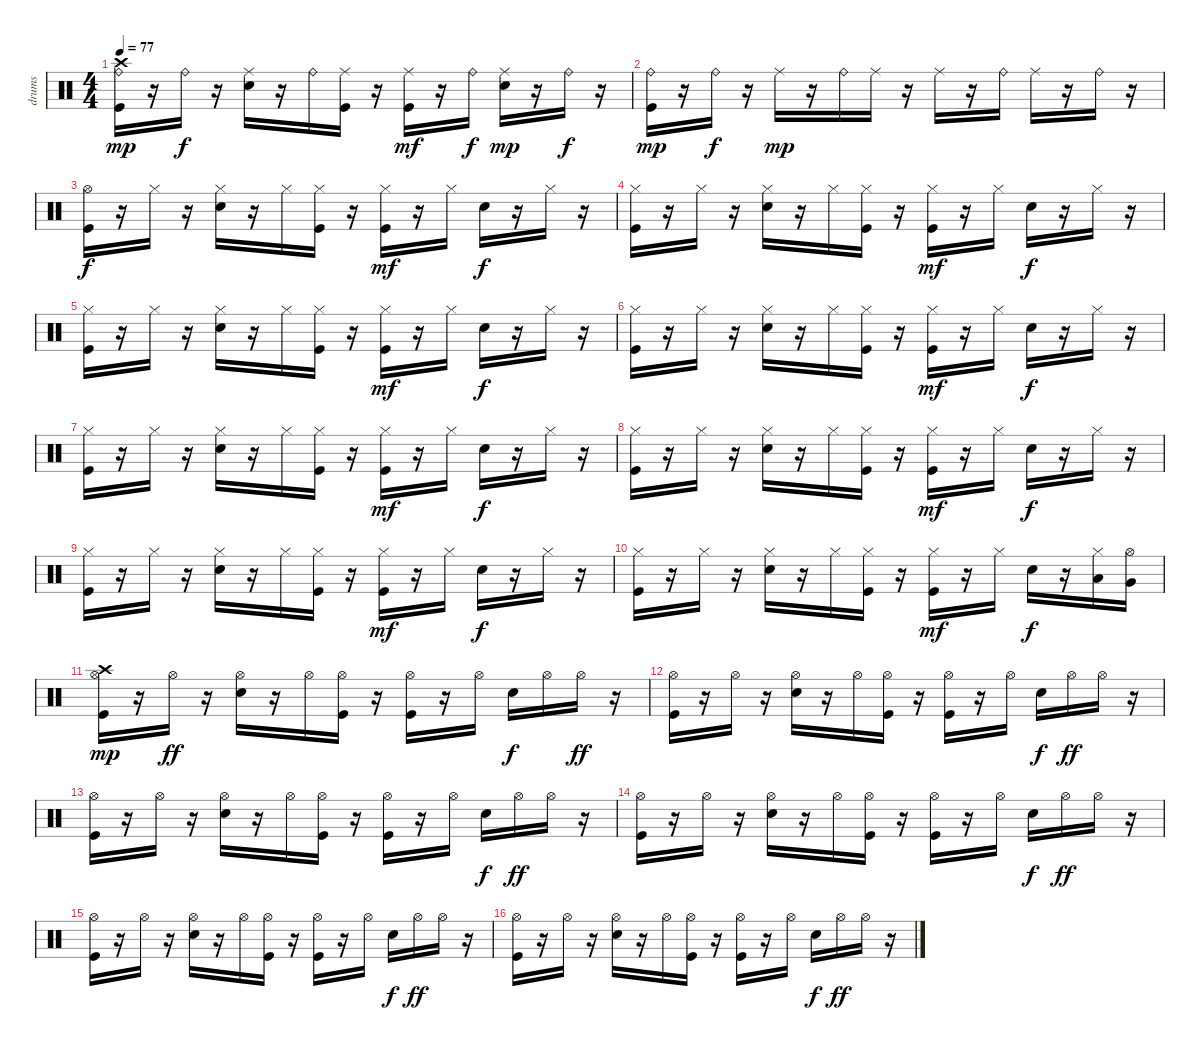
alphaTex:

\track ("drums" "drums") {instrument percussion}
\staff {score}
\articulation defaults
\ts (4 4)
\tempo 77
\clef neutral
\ks c
("Crash high (hit)" "Kick (hit)" "Ride (bell)").16{dy mp} r.16 "Ride (bell)".16{dy f} r.16 ("Snare (hit) 2" "Ride (middle)").16 r.16 "Ride (bell)".16 ("Kick (hit)" "Ride (middle)").16 r.16 ("Kick (hit)" "Ride (middle)").16{dy mf} r.16 "Ride (bell)".16{dy f} ("Snare (hit) 2" "Ride (middle)").16{dy mp} r.16 "Ride (bell)".16{dy f} r.16 |
("Kick (hit)" "Ride (bell)").16{dy mp} r.16 "Ride (bell)".16{dy f} r.16 "Ride (middle)".16{dy mp} r.16 "Ride (bell)".16 "Ride (middle)".16 r.16 "Ride (middle)".16 r.16 "Ride (bell)".16 "Ride (middle)".16 r.16 "Ride (bell)".16 r.16 |
("Hi-Hat (open)" "Kick (hit)").16{dy f} r.16 "Hi-Hat (closed)".16 r.16 ("Snare (hit) 2" "Hi-Hat (closed)").16 r.16 "Hi-Hat (closed)".16 ("Kick (hit)" "Hi-Hat (closed)").16 r.16 ("Kick (hit)" "Hi-Hat (closed)").16{dy mf} r.16 "Hi-Hat (closed)".16 "Snare (hit) 2".16{dy f} r.16 "Hi-Hat (closed)".16 r.16 |
("Hi-Hat (closed)" "Kick (hit)").16 r.16 "Hi-Hat (closed)".16 r.16 ("Snare (hit) 2" "Hi-Hat (closed)").16 r.16 "Hi-Hat (closed)".16 ("Kick (hit)" "Hi-Hat (closed)").16 r.16 ("Kick (hit)" "Hi-Hat (closed)").16{dy mf} r.16 "Hi-Hat (closed)".16 "Snare (hit) 2".16{dy f} r.16 "Hi-Hat (closed)".16 r.16 |
("Hi-Hat (closed)" "Kick (hit)").16 r.16 "Hi-Hat (closed)".16 r.16 ("Snare (hit) 2" "Hi-Hat (closed)").16 r.16 "Hi-Hat (closed)".16 ("Kick (hit)" "Hi-Hat (closed)").16 r.16 ("Kick (hit)" "Hi-Hat (closed)").16{dy mf} r.16 "Hi-Hat (closed)".16 "Snare (hit) 2".16{dy f} r.16 "Hi-Hat (closed)".16 r.16 |
("Hi-Hat (closed)" "Kick (hit)").16 r.16 "Hi-Hat (closed)".16 r.16 ("Snare (hit) 2" "Hi-Hat (closed)").16 r.16 "Hi-Hat (closed)".16 ("Kick (hit)" "Hi-Hat (closed)").16 r.16 ("Kick (hit)" "Hi-Hat (closed)").16{dy mf} r.16 "Hi-Hat (closed)".16 "Snare (hit) 2".16{dy f} r.16 "Hi-Hat (closed)".16 r.16 |
("Hi-Hat (closed)" "Kick (hit)").16 r.16 "Hi-Hat (closed)".16 r.16 ("Snare (hit) 2" "Hi-Hat (closed)").16 r.16 "Hi-Hat (closed)".16 ("Kick (hit)" "Hi-Hat (closed)").16 r.16 ("Kick (hit)" "Hi-Hat (closed)").16{dy mf} r.16 "Hi-Hat (closed)".16 "Snare (hit) 2".16{dy f} r.16 "Hi-Hat (closed)".16 r.16 |
("Hi-Hat (closed)" "Kick (hit)").16 r.16 "Hi-Hat (closed)".16 r.16 ("Snare (hit) 2" "Hi-Hat (closed)").16 r.16 "Hi-Hat (closed)".16 ("Kick (hit)" "Hi-Hat (closed)").16 r.16 ("Kick (hit)" "Hi-Hat (closed)").16{dy mf} r.16 "Hi-Hat (closed)".16 "Snare (hit) 2".16{dy f} r.16 "Hi-Hat (closed)".16 r.16 |
("Hi-Hat (closed)" "Kick (hit)").16 r.16 "Hi-Hat (closed)".16 r.16 ("Snare (hit) 2" "Hi-Hat (closed)").16 r.16 "Hi-Hat (closed)".16 ("Kick (hit)" "Hi-Hat (closed)").16 r.16 ("Kick (hit)" "Hi-Hat (closed)").16{dy mf} r.16 "Hi-Hat (closed)".16 "Snare (hit) 2".16{dy f} r.16 "Hi-Hat (closed)".16 r.16 |
("Hi-Hat (closed)" "Kick (hit)").16 r.16 "Hi-Hat (closed)".16 r.16 ("Snare (hit) 2" "Hi-Hat (closed)").16 r.16 "Hi-Hat (closed)".16 ("Kick (hit)" "Hi-Hat (closed)").16 r.16 ("Kick (hit)" "Hi-Hat (closed)").16{dy mf} r.16 "Hi-Hat (closed)".16 "Snare (hit) 2".16{dy f} r.16 ("Hi-Hat (closed)" "Low Floor Tom (hit)").16 ("Hi-Hat (open)" "Very Low Tom (hit)").16 |
("Crash high (hit)" "Kick (hit)" "Hi-Hat (open)").16{dy mp} r.16 "Hi-Hat (open)".16{dy ff} r.16 ("Snare (hit) 2" "Hi-Hat (open)").16 r.16 "Hi-Hat (open)".16 ("Kick (hit)" "Hi-Hat (open)").16 r.16 ("Kick (hit)" "Hi-Hat (open)").16 r.16 "Hi-Hat (open)".16 "Snare (hit) 2".16{dy f} "Hi-Hat (open)".16 "Hi-Hat (open)".16{dy ff} r.16 |
("Kick (hit)" "Hi-Hat (open)").16 r.16 "Hi-Hat (open)".16 r.16 ("Snare (hit) 2" "Hi-Hat (open)").16 r.16 "Hi-Hat (open)".16 ("Kick (hit)" "Hi-Hat (open)").16 r.16 ("Kick (hit)" "Hi-Hat (open)").16 r.16 "Hi-Hat (open)".16 "Snare (hit) 2".16{dy f} "Hi-Hat (open)".16{dy ff} "Hi-Hat (open)".16 r.16 |
("Kick (hit)" "Hi-Hat (open)").16 r.16 "Hi-Hat (open)".16 r.16 ("Snare (hit) 2" "Hi-Hat (open)").16 r.16 "Hi-Hat (open)".16 ("Kick (hit)" "Hi-Hat (open)").16 r.16 ("Kick (hit)" "Hi-Hat (open)").16 r.16 "Hi-Hat (open)".16 "Snare (hit) 2".16{dy f} "Hi-Hat (open)".16{dy ff} "Hi-Hat (open)".16 r.16 |
("Kick (hit)" "Hi-Hat (open)").16 r.16 "Hi-Hat (open)".16 r.16 ("Snare (hit) 2" "Hi-Hat (open)").16 r.16 "Hi-Hat (open)".16 ("Kick (hit)" "Hi-Hat (open)").16 r.16 ("Kick (hit)" "Hi-Hat (open)").16 r.16 "Hi-Hat (open)".16 "Snare (hit) 2".16{dy f} "Hi-Hat (open)".16{dy ff} "Hi-Hat (open)".16 r.16 |
("Kick (hit)" "Hi-Hat (open)").16 r.16 "Hi-Hat (open)".16 r.16 ("Snare (hit) 2" "Hi-Hat (open)").16 r.16 "Hi-Hat (open)".16 ("Kick (hit)" "Hi-Hat (open)").16 r.16 ("Kick (hit)" "Hi-Hat (open)").16 r.16 "Hi-Hat (open)".16 "Snare (hit) 2".16{dy f} "Hi-Hat (open)".16{dy ff} "Hi-Hat (open)".16 r.16 |
("Kick (hit)" "Hi-Hat (open)").16 r.16 "Hi-Hat (open)".16 r.16 ("Snare (hit) 2" "Hi-Hat (open)").16 r.16 "Hi-Hat (open)".16 ("Kick (hit)" "Hi-Hat (open)").16 r.16 ("Kick (hit)" "Hi-Hat (open)").16 r.16 "Hi-Hat (open)".16 "Snare (hit) 2".16{dy f} "Hi-Hat (open)".16{dy ff} "Hi-Hat (open)".16 r.16
